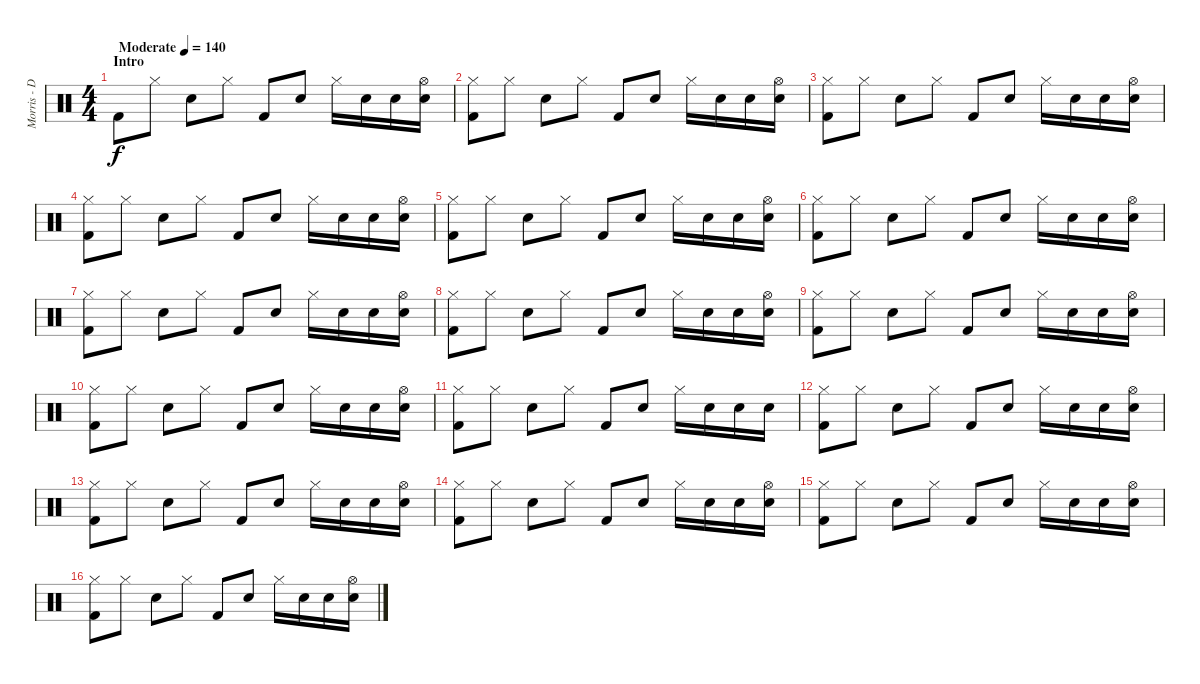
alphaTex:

\track ("Morris - Drums" "Morris - D") {instrument percussion}
\staff {score}
\articulation defaults
\ts (4 4)
\section ("" "Intro")
\tempo (140 "Moderate")
\clef neutral
\ks c "Kick (hit) 2".8{dy f} "Hi-Hat (closed)".8 "Snare (hit) 2".8 "Hi-Hat (closed)".8 "Kick (hit) 2".8 "Snare (hit) 2".8 "Hi-Hat (closed)".16 "Snare (hit) 2".16 "Snare (hit) 2".16
("Snare (hit) 2" "Hi-Hat (open)").16 |
("Kick (hit) 2" "Hi-Hat (closed)").8 "Hi-Hat (closed)".8 "Snare (hit) 2".8 "Hi-Hat (closed)".8 "Kick (hit) 2".8 "Snare (hit) 2".8 "Hi-Hat (closed)".16 "Snare (hit) 2".16 "Snare (hit) 2".16 ("Snare (hit) 2" "Hi-Hat (open)").16 |
("Kick (hit) 2" "Hi-Hat (closed)").8 "Hi-Hat (closed)".8 "Snare (hit) 2".8 "Hi-Hat (closed)".8 "Kick (hit) 2".8 "Snare (hit) 2".8 "Hi-Hat (closed)".16 "Snare (hit) 2".16 "Snare (hit) 2".16 ("Snare (hit) 2" "Hi-Hat (open)").16 |
("Kick (hit) 2" "Hi-Hat (closed)").8 "Hi-Hat (closed)".8 "Snare (hit) 2".8 "Hi-Hat (closed)".8 "Kick (hit) 2".8 "Snare (hit) 2".8 "Hi-Hat (closed)".16 "Snare (hit) 2".16 "Snare (hit) 2".16 ("Snare (hit) 2" "Hi-Hat (open)").16 |
("Kick (hit) 2" "Hi-Hat (closed)").8 "Hi-Hat (closed)".8 "Snare (hit) 2".8 "Hi-Hat (closed)".8 "Kick (hit) 2".8 "Snare (hit) 2".8 "Hi-Hat (closed)".16 "Snare (hit) 2".16 "Snare (hit) 2".16 ("Snare (hit) 2" "Hi-Hat (open)").16 |
("Kick (hit) 2" "Hi-Hat (closed)").8 "Hi-Hat (closed)".8 "Snare (hit) 2".8 "Hi-Hat (closed)".8 "Kick (hit) 2".8 "Snare (hit) 2".8 "Hi-Hat (closed)".16 "Snare (hit) 2".16 "Snare (hit) 2".16 ("Snare (hit) 2" "Hi-Hat (open)").16 |
("Kick (hit) 2" "Hi-Hat (closed)").8 "Hi-Hat (closed)".8 "Snare (hit) 2".8 "Hi-Hat (closed)".8 "Kick (hit) 2".8 "Snare (hit) 2".8 "Hi-Hat (closed)".16 "Snare (hit) 2".16 "Snare (hit) 2".16 ("Snare (hit) 2" "Hi-Hat (open)").16 |
("Kick (hit) 2" "Hi-Hat (closed)").8 "Hi-Hat (closed)".8 "Snare (hit) 2".8 "Hi-Hat (closed)".8 "Kick (hit) 2".8 "Snare (hit) 2".8 "Hi-Hat (closed)".16 "Snare (hit) 2".16 "Snare (hit) 2".16 ("Snare (hit) 2" "Hi-Hat (open)").16 |
("Kick (hit) 2" "Hi-Hat (closed)").8 "Hi-Hat (closed)".8 "Snare (hit) 2".8 "Hi-Hat (closed)".8 "Kick (hit) 2".8 "Snare (hit) 2".8 "Hi-Hat (closed)".16 "Snare (hit) 2".16 "Snare (hit) 2".16 ("Snare (hit) 2" "Hi-Hat (open)").16 |
("Kick (hit) 2" "Hi-Hat (closed)").8 "Hi-Hat (closed)".8 "Snare (hit) 2".8 "Hi-Hat (closed)".8 "Kick (hit) 2".8 "Snare (hit) 2".8 "Hi-Hat (closed)".16 "Snare (hit) 2".16 "Snare (hit) 2".16 ("Snare (hit) 2" "Hi-Hat (open)").16 |
("Kick (hit) 2" "Hi-Hat (closed)").8 "Hi-Hat (closed)".8 "Snare (hit) 2".8 "Hi-Hat (closed)".8 "Kick (hit) 2".8 "Snare (hit) 2".8 "Hi-Hat (closed)".16 "Snare (hit) 2".16 "Snare (hit) 2".16 "Snare (hit) 2".16 |
("Kick (hit) 2" "Hi-Hat (closed)").8 "Hi-Hat (closed)".8 "Snare (hit) 2".8 "Hi-Hat (closed)".8 "Kick (hit) 2".8 "Snare (hit) 2".8 "Hi-Hat (closed)".16 "Snare (hit) 2".16 "Snare (hit) 2".16 ("Snare (hit) 2" "Hi-Hat (open)").16 |
("Kick (hit) 2" "Hi-Hat (closed)").8 "Hi-Hat (closed)".8 "Snare (hit) 2".8 "Hi-Hat (closed)".8 "Kick (hit) 2".8 "Snare (hit) 2".8 "Hi-Hat (closed)".16 "Snare (hit) 2".16 "Snare (hit) 2".16 ("Snare (hit) 2" "Hi-Hat (open)").16 |
("Kick (hit) 2" "Hi-Hat (closed)").8 "Hi-Hat (closed)".8 "Snare (hit) 2".8 "Hi-Hat (closed)".8 "Kick (hit) 2".8 "Snare (hit) 2".8 "Hi-Hat (closed)".16 "Snare (hit) 2".16 "Snare (hit) 2".16 ("Snare (hit) 2" "Hi-Hat (open)").16 |
("Kick (hit) 2" "Hi-Hat (closed)").8 "Hi-Hat (closed)".8 "Snare (hit) 2".8 "Hi-Hat (closed)".8 "Kick (hit) 2".8 "Snare (hit) 2".8 "Hi-Hat (closed)".16 "Snare (hit) 2".16 "Snare (hit) 2".16 ("Snare (hit) 2" "Hi-Hat (open)").16 |
("Kick (hit) 2" "Hi-Hat (closed)").8 "Hi-Hat (closed)".8 "Snare (hit) 2".8 "Hi-Hat (closed)".8 "Kick (hit) 2".8 "Snare (hit) 2".8 "Hi-Hat (closed)".16 "Snare (hit) 2".16 "Snare (hit) 2".16 ("Snare (hit) 2" "Hi-Hat (open)").16
